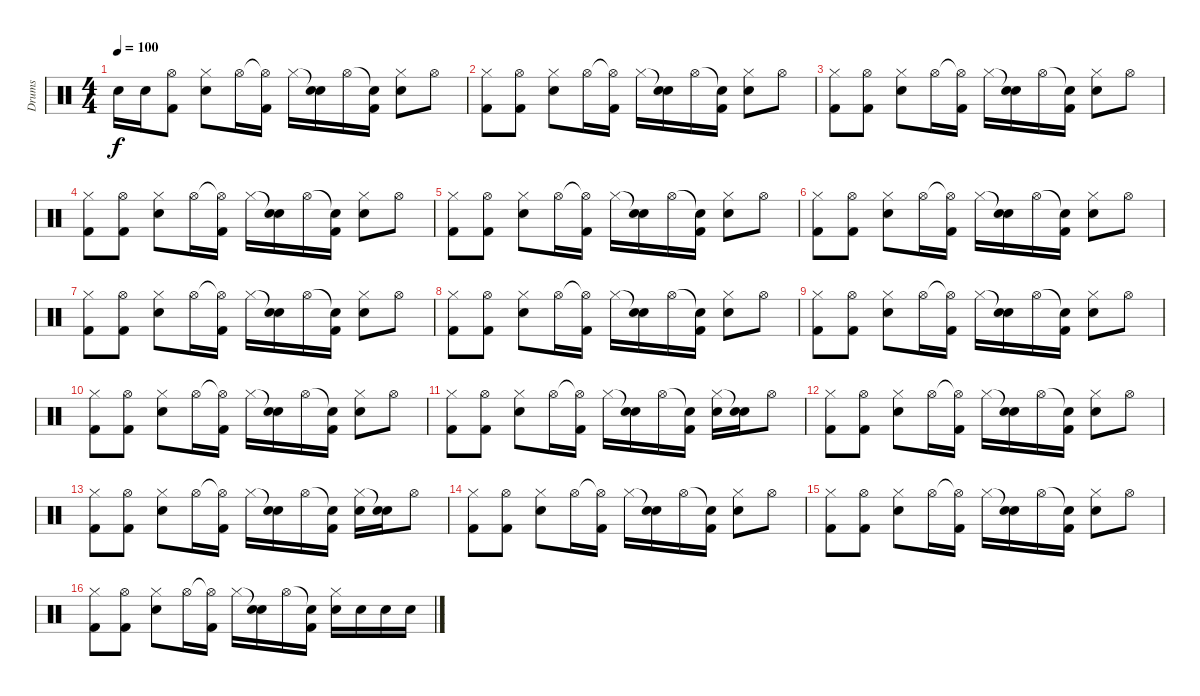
\track ("Drums" "Drums") {instrument percussion}
\staff {score}
\articulation defaults
\ts (4 4)
\tempo 100
\clef neutral
\ks c "Electric Snare (hit)".16{dy f} "Electric Snare (hit)".16
("Hi-Hat (open)" "Kick (hit) 2").8 ("Hi-Hat (closed)" "Electric Snare (hit)").8 "Hi-Hat (open)".16 ("Hi-Hat (open)"{t} "Kick (hit) 2").16 "Hi-Hat (closed)".16 ("Snare (hit)"{t} "Electric Snare (hit)").16 "Hi-Hat (open)".16 ("Snare (hit)"{t} "Kick (hit) 2").16 ("Hi-Hat (closed)" "Electric Snare (hit)").8 "Hi-Hat (open)".8 |
("Hi-Hat (closed)" "Kick (hit) 2").8 ("Hi-Hat (open)" "Kick (hit) 2").8 ("Hi-Hat (closed)" "Electric Snare (hit)").8 "Hi-Hat (open)".16 ("Hi-Hat (open)"{t} "Kick (hit) 2").16 "Hi-Hat (closed)".16 ("Snare (hit)"{t} "Electric Snare (hit)").16 "Hi-Hat (open)".16 ("Snare (hit)"{t} "Kick (hit) 2").16 ("Hi-Hat (closed)" "Electric Snare (hit)").8 "Hi-Hat (open)".8 |
("Hi-Hat (closed)" "Kick (hit) 2").8 ("Hi-Hat (open)" "Kick (hit) 2").8 ("Hi-Hat (closed)" "Electric Snare (hit)").8 "Hi-Hat (open)".16 ("Hi-Hat (open)"{t} "Kick (hit) 2").16 "Hi-Hat (closed)".16 ("Snare (hit)"{t} "Electric Snare (hit)").16 "Hi-Hat (open)".16 ("Snare (hit)"{t} "Kick (hit) 2").16 ("Hi-Hat (closed)" "Electric Snare (hit)").8 "Hi-Hat (open)".8 |
("Hi-Hat (closed)" "Kick (hit) 2").8 ("Hi-Hat (open)" "Kick (hit) 2").8 ("Hi-Hat (closed)" "Electric Snare (hit)").8 "Hi-Hat (open)".16 ("Hi-Hat (open)"{t} "Kick (hit) 2").16 "Hi-Hat (closed)".16 ("Snare (hit)"{t} "Electric Snare (hit)").16 "Hi-Hat (open)".16 ("Snare (hit)"{t} "Kick (hit) 2").16 ("Hi-Hat (closed)" "Electric Snare (hit)").8 "Hi-Hat (open)".8 |
("Hi-Hat (closed)" "Kick (hit) 2").8 ("Hi-Hat (open)" "Kick (hit) 2").8 ("Hi-Hat (closed)" "Electric Snare (hit)").8 "Hi-Hat (open)".16 ("Hi-Hat (open)"{t} "Kick (hit) 2").16 "Hi-Hat (closed)".16 ("Snare (hit)"{t} "Electric Snare (hit)").16 "Hi-Hat (open)".16 ("Snare (hit)"{t} "Kick (hit) 2").16 ("Hi-Hat (closed)" "Electric Snare (hit)").8 "Hi-Hat (open)".8 |
("Hi-Hat (closed)" "Kick (hit) 2").8 ("Hi-Hat (open)" "Kick (hit) 2").8 ("Hi-Hat (closed)" "Electric Snare (hit)").8 "Hi-Hat (open)".16 ("Hi-Hat (open)"{t} "Kick (hit) 2").16 "Hi-Hat (closed)".16 ("Snare (hit)"{t} "Electric Snare (hit)").16 "Hi-Hat (open)".16 ("Snare (hit)"{t} "Kick (hit) 2").16 ("Hi-Hat (closed)" "Electric Snare (hit)").8 "Hi-Hat (open)".8 |
("Hi-Hat (closed)" "Kick (hit) 2").8 ("Hi-Hat (open)" "Kick (hit) 2").8 ("Hi-Hat (closed)" "Electric Snare (hit)").8 "Hi-Hat (open)".16 ("Hi-Hat (open)"{t} "Kick (hit) 2").16 "Hi-Hat (closed)".16 ("Snare (hit)"{t} "Electric Snare (hit)").16 "Hi-Hat (open)".16 ("Snare (hit)"{t} "Kick (hit) 2").16 ("Hi-Hat (closed)" "Electric Snare (hit)").8 "Hi-Hat (open)".8 |
("Hi-Hat (closed)" "Kick (hit) 2").8 ("Hi-Hat (open)" "Kick (hit) 2").8 ("Hi-Hat (closed)" "Electric Snare (hit)").8 "Hi-Hat (open)".16 ("Hi-Hat (open)"{t} "Kick (hit) 2").16 "Hi-Hat (closed)".16 ("Snare (hit)"{t} "Electric Snare (hit)").16 "Hi-Hat (open)".16 ("Snare (hit)"{t} "Kick (hit) 2").16 ("Hi-Hat (closed)" "Electric Snare (hit)").8 "Hi-Hat (open)".8 |
("Hi-Hat (closed)" "Kick (hit) 2").8 ("Hi-Hat (open)" "Kick (hit) 2").8 ("Hi-Hat (closed)" "Electric Snare (hit)").8 "Hi-Hat (open)".16 ("Hi-Hat (open)"{t} "Kick (hit) 2").16 "Hi-Hat (closed)".16 ("Snare (hit)"{t} "Electric Snare (hit)").16 "Hi-Hat (open)".16 ("Snare (hit)"{t} "Kick (hit) 2").16 ("Hi-Hat (closed)" "Electric Snare (hit)").8 "Hi-Hat (open)".8 |
("Hi-Hat (closed)" "Kick (hit) 2").8 ("Hi-Hat (open)" "Kick (hit) 2").8 ("Hi-Hat (closed)" "Electric Snare (hit)").8 "Hi-Hat (open)".16 ("Hi-Hat (open)"{t} "Kick (hit) 2").16 "Hi-Hat (closed)".16 ("Snare (hit)"{t} "Electric Snare (hit)").16 "Hi-Hat (open)".16 ("Snare (hit)"{t} "Kick (hit) 2").16 ("Hi-Hat (closed)" "Electric Snare (hit)").8 "Hi-Hat (open)".8 |
("Hi-Hat (closed)" "Kick (hit) 2").8 ("Hi-Hat (open)" "Kick (hit) 2").8 ("Hi-Hat (closed)" "Electric Snare (hit)").8 "Hi-Hat (open)".16 ("Hi-Hat (open)"{t} "Kick (hit) 2").16 "Hi-Hat (closed)".16 ("Snare (hit)"{t} "Electric Snare (hit)").16 "Hi-Hat (open)".16 ("Snare (hit)"{t} "Kick (hit) 2").16 ("Hi-Hat (closed)" "Electric Snare (hit)").16 ("Snare (hit)"{t} "Electric Snare (hit)").16 "Hi-Hat (open)".8 |
("Hi-Hat (closed)" "Kick (hit) 2").8 ("Hi-Hat (open)" "Kick (hit) 2").8 ("Hi-Hat (closed)" "Electric Snare (hit)").8 "Hi-Hat (open)".16 ("Hi-Hat (open)"{t} "Kick (hit) 2").16 "Hi-Hat (closed)".16 ("Snare (hit)"{t} "Electric Snare (hit)").16 "Hi-Hat (open)".16 ("Snare (hit)"{t} "Kick (hit) 2").16 ("Hi-Hat (closed)" "Electric Snare (hit)").8 "Hi-Hat (open)".8 |
("Hi-Hat (closed)" "Kick (hit) 2").8 ("Hi-Hat (open)" "Kick (hit) 2").8 ("Hi-Hat (closed)" "Electric Snare (hit)").8 "Hi-Hat (open)".16 ("Hi-Hat (open)"{t} "Kick (hit) 2").16 "Hi-Hat (closed)".16 ("Snare (hit)"{t} "Electric Snare (hit)").16 "Hi-Hat (open)".16 ("Snare (hit)"{t} "Kick (hit) 2").16 ("Hi-Hat (closed)" "Electric Snare (hit)").16 ("Snare (hit)"{t} "Electric Snare (hit)").16 "Hi-Hat (open)".8 |
("Hi-Hat (closed)" "Kick (hit) 2").8 ("Hi-Hat (open)" "Kick (hit) 2").8 ("Hi-Hat (closed)" "Electric Snare (hit)").8 "Hi-Hat (open)".16 ("Hi-Hat (open)"{t} "Kick (hit) 2").16 "Hi-Hat (closed)".16 ("Snare (hit)"{t} "Electric Snare (hit)").16 "Hi-Hat (open)".16 ("Snare (hit)"{t} "Kick (hit) 2").16 ("Hi-Hat (closed)" "Electric Snare (hit)").8 "Hi-Hat (open)".8 |
("Hi-Hat (closed)" "Kick (hit) 2").8 ("Hi-Hat (open)" "Kick (hit) 2").8 ("Hi-Hat (closed)" "Electric Snare (hit)").8 "Hi-Hat (open)".16 ("Hi-Hat (open)"{t} "Kick (hit) 2").16 "Hi-Hat (closed)".16 ("Snare (hit)"{t} "Electric Snare (hit)").16 "Hi-Hat (open)".16 ("Snare (hit)"{t} "Kick (hit) 2").16 ("Hi-Hat (closed)" "Electric Snare (hit)").8 "Hi-Hat (open)".8 |
("Hi-Hat (closed)" "Kick (hit) 2").8 ("Hi-Hat (open)" "Kick (hit) 2").8 ("Hi-Hat (closed)" "Electric Snare (hit)").8 "Hi-Hat (open)".16 ("Hi-Hat (open)"{t} "Kick (hit) 2").16 "Hi-Hat (closed)".16 ("Snare (hit)"{t} "Electric Snare (hit)").16 "Hi-Hat (open)".16 ("Snare (hit)"{t} "Kick (hit) 2").16 ("Hi-Hat (closed)" "Electric Snare (hit)").16 "Electric Snare (hit)".16 "Electric Snare (hit)".16 "Electric Snare (hit)".16
